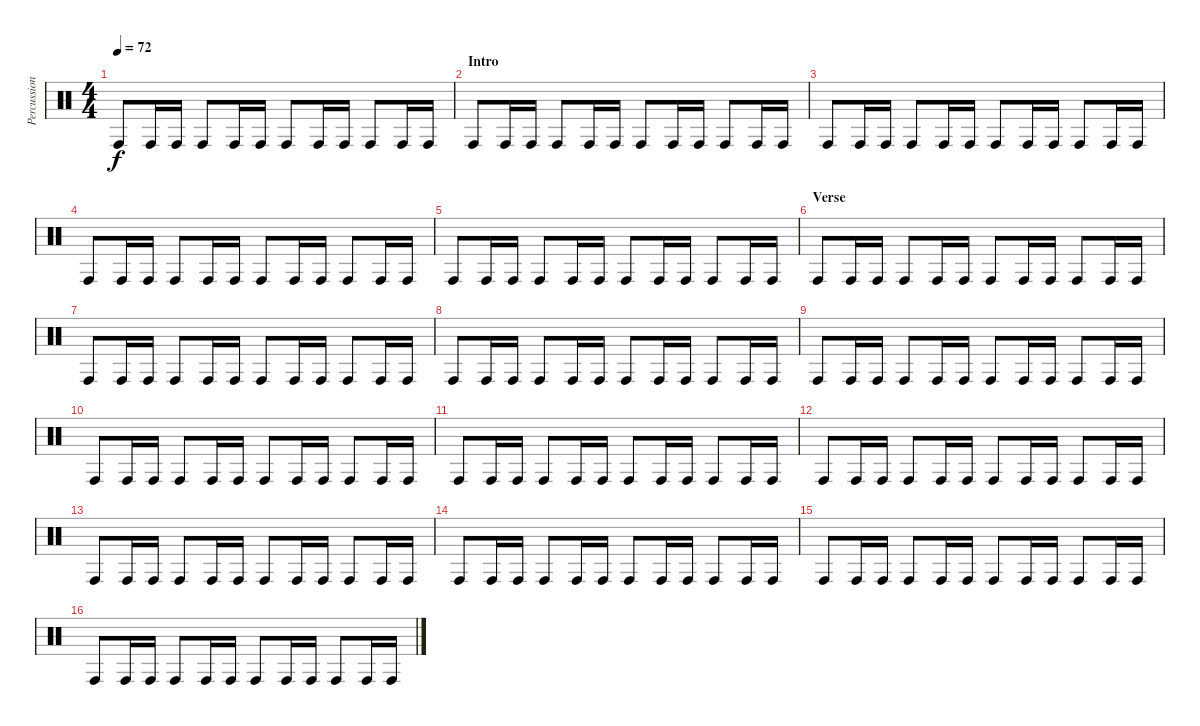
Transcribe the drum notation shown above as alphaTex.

\track ("Percussions" "Percussion") {instrument percussion}
\staff {score}
\articulation defaults
\ts (4 4)
\tempo 72
\clef neutral
\ks c "Conga high (hit)".8{dy f} "Conga high (hit)".16 "Conga high (hit)".16 "Conga high (hit)".8 "Conga high (hit)".16 "Conga high (hit)".16 "Conga high (hit)".8 "Conga high (hit)".16 "Conga high (hit)".16 "Conga high (hit)".8 "Conga high (hit)".16 "Conga high (hit)".16
|
\section ("" "Intro")
"Conga high (hit)".8 "Conga high (hit)".16 "Conga high (hit)".16 "Conga high (hit)".8 "Conga high (hit)".16 "Conga high (hit)".16 "Conga high (hit)".8 "Conga high (hit)".16 "Conga high (hit)".16 "Conga high (hit)".8 "Conga high (hit)".16 "Conga high (hit)".16 |
"Conga high (hit)".8 "Conga high (hit)".16 "Conga high (hit)".16 "Conga high (hit)".8 "Conga high (hit)".16 "Conga high (hit)".16 "Conga high (hit)".8 "Conga high (hit)".16 "Conga high (hit)".16 "Conga high (hit)".8 "Conga high (hit)".16 "Conga high (hit)".16 |
"Conga high (hit)".8 "Conga high (hit)".16 "Conga high (hit)".16 "Conga high (hit)".8 "Conga high (hit)".16 "Conga high (hit)".16 "Conga high (hit)".8 "Conga high (hit)".16 "Conga high (hit)".16 "Conga high (hit)".8 "Conga high (hit)".16 "Conga high (hit)".16 |
"Conga high (hit)".8 "Conga high (hit)".16 "Conga high (hit)".16 "Conga high (hit)".8 "Conga high (hit)".16 "Conga high (hit)".16 "Conga high (hit)".8 "Conga high (hit)".16 "Conga high (hit)".16 "Conga high (hit)".8 "Conga high (hit)".16 "Conga high (hit)".16 |
\section ("" "Verse")
"Conga high (hit)".8 "Conga high (hit)".16 "Conga high (hit)".16 "Conga high (hit)".8 "Conga high (hit)".16 "Conga high (hit)".16 "Conga high (hit)".8 "Conga high (hit)".16 "Conga high (hit)".16 "Conga high (hit)".8 "Conga high (hit)".16 "Conga high (hit)".16 |
"Conga high (hit)".8 "Conga high (hit)".16 "Conga high (hit)".16 "Conga high (hit)".8 "Conga high (hit)".16 "Conga high (hit)".16 "Conga high (hit)".8 "Conga high (hit)".16 "Conga high (hit)".16 "Conga high (hit)".8 "Conga high (hit)".16 "Conga high (hit)".16 |
"Conga high (hit)".8 "Conga high (hit)".16 "Conga high (hit)".16 "Conga high (hit)".8 "Conga high (hit)".16 "Conga high (hit)".16 "Conga high (hit)".8 "Conga high (hit)".16 "Conga high (hit)".16 "Conga high (hit)".8 "Conga high (hit)".16 "Conga high (hit)".16 |
"Conga high (hit)".8 "Conga high (hit)".16 "Conga high (hit)".16 "Conga high (hit)".8 "Conga high (hit)".16 "Conga high (hit)".16 "Conga high (hit)".8 "Conga high (hit)".16 "Conga high (hit)".16 "Conga high (hit)".8 "Conga high (hit)".16 "Conga high (hit)".16 |
"Conga high (hit)".8 "Conga high (hit)".16 "Conga high (hit)".16 "Conga high (hit)".8 "Conga high (hit)".16 "Conga high (hit)".16 "Conga high (hit)".8 "Conga high (hit)".16 "Conga high (hit)".16 "Conga high (hit)".8 "Conga high (hit)".16 "Conga high (hit)".16 |
"Conga high (hit)".8 "Conga high (hit)".16 "Conga high (hit)".16 "Conga high (hit)".8 "Conga high (hit)".16 "Conga high (hit)".16 "Conga high (hit)".8 "Conga high (hit)".16 "Conga high (hit)".16 "Conga high (hit)".8 "Conga high (hit)".16 "Conga high (hit)".16 |
"Conga high (hit)".8 "Conga high (hit)".16 "Conga high (hit)".16 "Conga high (hit)".8 "Conga high (hit)".16 "Conga high (hit)".16 "Conga high (hit)".8 "Conga high (hit)".16 "Conga high (hit)".16 "Conga high (hit)".8 "Conga high (hit)".16 "Conga high (hit)".16 |
"Conga high (hit)".8 "Conga high (hit)".16 "Conga high (hit)".16 "Conga high (hit)".8 "Conga high (hit)".16 "Conga high (hit)".16 "Conga high (hit)".8 "Conga high (hit)".16 "Conga high (hit)".16 "Conga high (hit)".8 "Conga high (hit)".16 "Conga high (hit)".16 |
"Conga high (hit)".8 "Conga high (hit)".16 "Conga high (hit)".16 "Conga high (hit)".8 "Conga high (hit)".16 "Conga high (hit)".16 "Conga high (hit)".8 "Conga high (hit)".16 "Conga high (hit)".16 "Conga high (hit)".8 "Conga high (hit)".16 "Conga high (hit)".16 |
"Conga high (hit)".8 "Conga high (hit)".16 "Conga high (hit)".16 "Conga high (hit)".8 "Conga high (hit)".16 "Conga high (hit)".16 "Conga high (hit)".8 "Conga high (hit)".16 "Conga high (hit)".16 "Conga high (hit)".8 "Conga high (hit)".16 "Conga high (hit)".16 |
"Conga high (hit)".8 "Conga high (hit)".16 "Conga high (hit)".16 "Conga high (hit)".8 "Conga high (hit)".16 "Conga high (hit)".16 "Conga high (hit)".8 "Conga high (hit)".16 "Conga high (hit)".16 "Conga high (hit)".8 "Conga high (hit)".16 "Conga high (hit)".16
